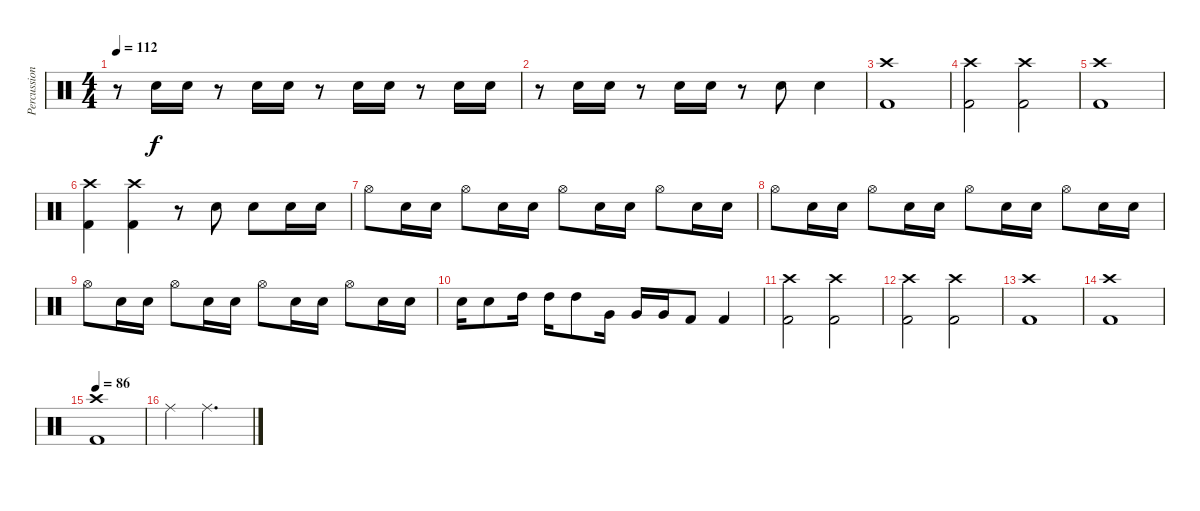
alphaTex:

\track ("Percussion" "Percussion") {instrument percussion}
\staff {score}
\articulation defaults
\ts (4 4)
\tempo 112
\clef neutral
\ks c
r.8{dy f} "Electric Snare (hit)".16 "Electric Snare (hit)".16 r.8 "Electric Snare (hit)".16 "Electric Snare (hit)".16 r.8 "Electric Snare (hit)".16 "Electric Snare (hit)".16 r.8 "Electric Snare (hit)".16 "Electric Snare (hit)".16 |
r.8 "Electric Snare (hit)".16 "Electric Snare (hit)".16 r.8 "Electric Snare (hit)".16 "Electric Snare (hit)".16 r.8 "Electric Snare (hit)".8 "Electric Snare (hit)".4 |
("Crash high (hit)" "Kick (hit) 2").1 |
("Crash high (hit)" "Kick (hit) 2").2 ("Crash high (hit)" "Kick (hit) 2").2 |
("Crash high (hit)" "Kick (hit) 2").1 |
("Crash high (hit)" "Kick (hit) 2").4 ("Crash high (hit)" "Kick (hit) 2").4 r.8 "Electric Snare (hit)".8 "Electric Snare (hit)".8 "Electric Snare (hit)".16 "Electric Snare (hit)".16 |
"Hi-Hat (open)".8 "Electric Snare (hit)".16 "Electric Snare (hit)".16 "Hi-Hat (open)".8 "Electric Snare (hit)".16 "Electric Snare (hit)".16 "Hi-Hat (open)".8 "Electric Snare (hit)".16 "Electric Snare (hit)".16 "Hi-Hat (open)".8 "Electric Snare (hit)".16 "Electric Snare (hit)".16 |
"Hi-Hat (open)".8 "Electric Snare (hit)".16 "Electric Snare (hit)".16 "Hi-Hat (open)".8 "Electric Snare (hit)".16 "Electric Snare (hit)".16 "Hi-Hat (open)".8 "Electric Snare (hit)".16 "Electric Snare (hit)".16 "Hi-Hat (open)".8 "Electric Snare (hit)".16 "Electric Snare (hit)".16 |
"Hi-Hat (open)".8 "Electric Snare (hit)".16 "Electric Snare (hit)".16 "Hi-Hat (open)".8 "Electric Snare (hit)".16 "Electric Snare (hit)".16 "Hi-Hat (open)".8 "Electric Snare (hit)".16 "Electric Snare (hit)".16 "Hi-Hat (open)".8 "Electric Snare (hit)".16 "Electric Snare (hit)".16 |
"Electric Snare (hit)".16 "Electric Snare (hit)".8 "High Tom (hit)".16 "High Tom (hit)".16 "High Tom (hit)".8 "Very Low Tom (hit)".16 "Very Low Tom (hit)".16 "Very Low Tom (hit)".16 "Kick (hit) 2".8 "Kick (hit) 2".4 |
("Crash high (hit)" "Kick (hit) 2").2 ("Crash high (hit)" "Kick (hit) 2").2 |
("Crash high (hit)" "Kick (hit) 2").2 ("Crash high (hit)" "Kick (hit) 2").2 |
("Crash high (hit)" "Kick (hit) 2").1 |
("Crash high (hit)" "Kick (hit) 2").1 |
\tempo 86
("Crash high (hit)" "Kick (hit) 2").1 |
"Ride (middle)".4 "Ride (middle)".2{d}
